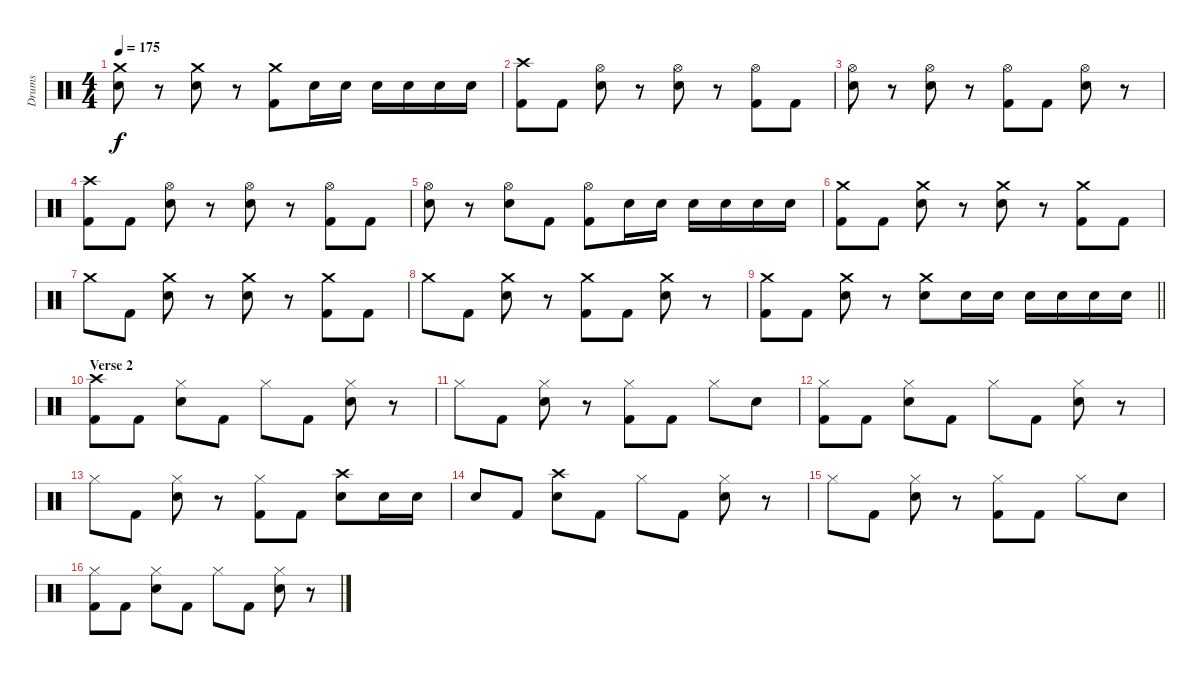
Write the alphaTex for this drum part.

\track ("Drums" "Drums") {instrument percussion}
\staff {score}
\articulation defaults
\ts (4 4)
\tempo 175
\clef neutral
\ks c
("Crash medium (hit)" "Snare (hit) 2").8{dy f} r.8 ("Crash medium (hit)" "Snare (hit) 2").8 r.8 ("Crash medium (hit)" "Kick (hit) 2").8 "Snare (hit) 2".16 "Snare (hit) 2".16 "Snare (hit) 2".16 "Snare (hit) 2".16 "Snare (hit) 2".16 "Snare (hit) 2".16 |
("Crash high (hit)" "Kick (hit) 2").8 "Kick (hit) 2".8 ("Hi-Hat (open)" "Snare (hit) 2").8 r.8 ("Hi-Hat (open)" "Snare (hit) 2").8 r.8 ("Hi-Hat (open)" "Kick (hit) 2").8 "Kick (hit) 2".8 |
("Hi-Hat (open)" "Snare (hit) 2").8 r.8 ("Hi-Hat (open)" "Snare (hit) 2").8 r.8 ("Hi-Hat (open)" "Kick (hit) 2").8 "Kick (hit) 2".8 ("Hi-Hat (open)" "Snare (hit) 2").8 r.8 |
("Crash high (hit)" "Kick (hit) 2").8 "Kick (hit) 2".8 ("Hi-Hat (open)" "Snare (hit) 2").8 r.8 ("Hi-Hat (open)" "Snare (hit) 2").8 r.8 ("Hi-Hat (open)" "Kick (hit) 2").8 "Kick (hit) 2".8 |
("Hi-Hat (open)" "Snare (hit) 2").8 r.8 ("Hi-Hat (open)" "Snare (hit) 2").8 "Kick (hit) 2".8 ("Hi-Hat (open)" "Kick (hit) 2").8 "Snare (hit) 2".16 "Snare (hit) 2".16 "Snare (hit) 2".16 "Snare (hit) 2".16 "Snare (hit) 2".16 "Snare (hit) 2".16 |
("Crash medium (hit)" "Kick (hit) 2").8 "Kick (hit) 2".8 ("Crash medium (hit)" "Snare (hit) 2").8 r.8 ("Crash medium (hit)" "Snare (hit) 2").8 r.8 ("Crash medium (hit)" "Kick (hit) 2").8 "Kick (hit) 2".8 |
"Crash medium (hit)".8 "Kick (hit) 2".8 ("Crash medium (hit)" "Snare (hit) 2").8 r.8 ("Crash medium (hit)" "Snare (hit) 2").8 r.8 ("Crash medium (hit)" "Kick (hit) 2").8 "Kick (hit) 2".8 |
"Crash medium (hit)".8 "Kick (hit) 2".8 ("Crash medium (hit)" "Snare (hit) 2").8 r.8 ("Crash medium (hit)" "Kick (hit) 2").8 "Kick (hit) 2".8 ("Crash medium (hit)" "Snare (hit) 2").8 r.8 |
\barLineRight lightlight
("Crash medium (hit)" "Kick (hit) 2").8 "Kick (hit) 2".8 ("Crash medium (hit)" "Snare (hit) 2").8 r.8 ("Crash medium (hit)" "Snare (hit) 2").8 "Snare (hit) 2".16 "Snare (hit) 2".16 "Snare (hit) 2".16 "Snare (hit) 2".16 "Snare (hit) 2".16 "Snare (hit) 2".16 |
\section ("" "Verse 2")
("Crash high (hit)" "Kick (hit) 2").8 "Kick (hit) 2".8 ("Hi-Hat (closed)" "Snare (hit) 2").8 "Kick (hit) 2".8 "Hi-Hat (closed)".8 "Kick (hit) 2".8 ("Hi-Hat (closed)" "Snare (hit) 2").8 r.8 |
"Hi-Hat (closed)".8 "Kick (hit) 2".8 ("Hi-Hat (closed)" "Snare (hit) 2").8 r.8 ("Hi-Hat (closed)" "Kick (hit) 2").8 "Kick (hit) 2".8 "Hi-Hat (closed)".8 "Snare (hit) 2".8 |
("Hi-Hat (closed)" "Kick (hit) 2").8 "Kick (hit) 2".8 ("Hi-Hat (closed)" "Snare (hit) 2").8 "Kick (hit) 2".8 "Hi-Hat (closed)".8 "Kick (hit) 2".8 ("Hi-Hat (closed)" "Snare (hit) 2").8 r.8 |
"Hi-Hat (closed)".8 "Kick (hit) 2".8 ("Hi-Hat (closed)" "Snare (hit) 2").8 r.8 ("Hi-Hat (closed)" "Kick (hit) 2").8 "Kick (hit) 2".8 ("Crash high (hit)" "Snare (hit) 2").8 "Snare (hit) 2".16 "Snare (hit) 2".16 |
"Snare (hit) 2".8 "Kick (hit) 2".8 ("Crash high (hit)" "Snare (hit) 2").8 "Kick (hit) 2".8 "Hi-Hat (closed)".8 "Kick (hit) 2".8 ("Hi-Hat (closed)" "Snare (hit) 2").8 r.8 |
"Hi-Hat (closed)".8 "Kick (hit) 2".8 ("Hi-Hat (closed)" "Snare (hit) 2").8 r.8 ("Hi-Hat (closed)" "Kick (hit) 2").8 "Kick (hit) 2".8 "Hi-Hat (closed)".8 "Snare (hit) 2".8 |
("Hi-Hat (closed)" "Kick (hit) 2").8 "Kick (hit) 2".8 ("Hi-Hat (closed)" "Snare (hit) 2").8 "Kick (hit) 2".8 "Hi-Hat (closed)".8 "Kick (hit) 2".8 ("Hi-Hat (closed)" "Snare (hit) 2").8 r.8
